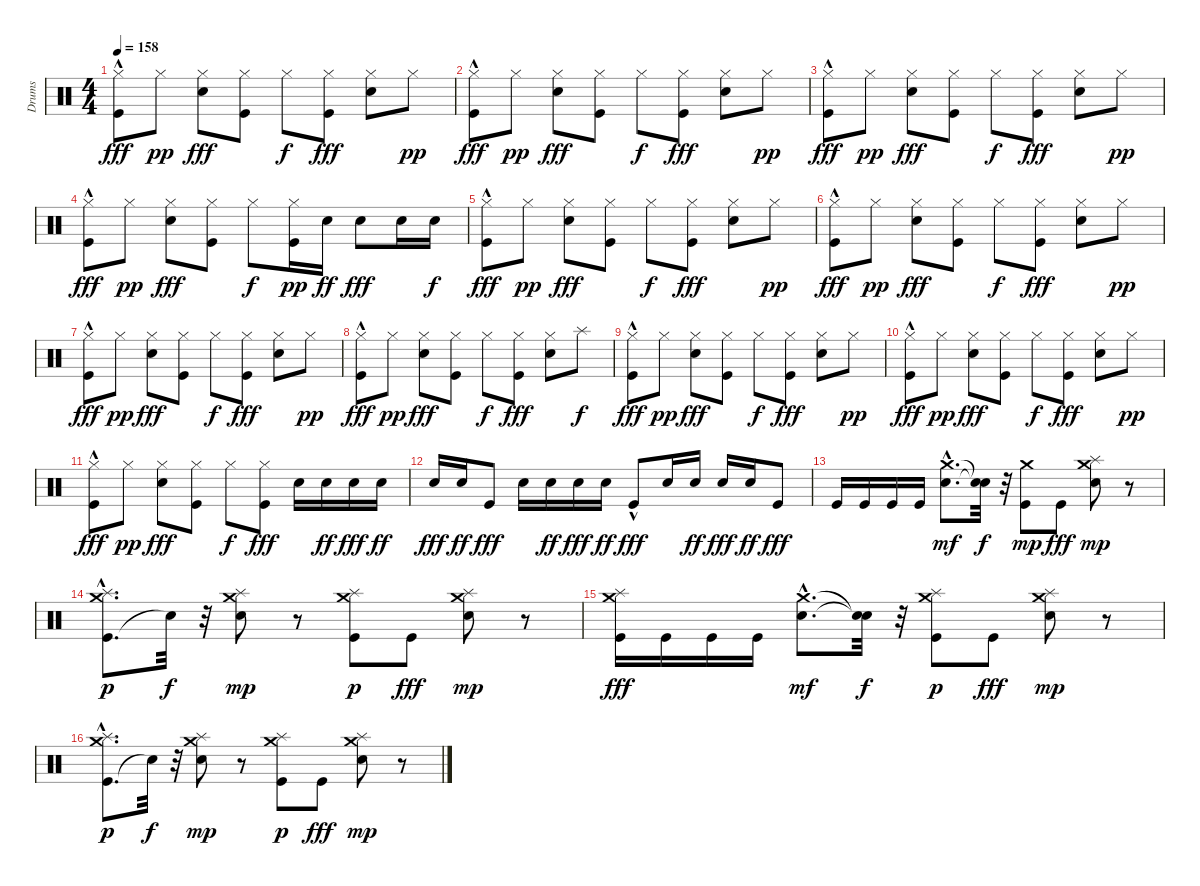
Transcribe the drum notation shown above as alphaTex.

\track ("Drums" "Drums") {instrument percussion}
\staff {score}
\articulation defaults
\ts (4 4)
\tempo 158
\clef neutral
\ks c
("Hi-Hat (closed)" "Kick (hit)"{hac}).8{dy fff} "Hi-Hat (closed)".8{dy pp} ("Electric Snare (hit)" "Hi-Hat (closed)").8{dy fff} ("Hi-Hat (closed)" "Kick (hit)").8 "Hi-Hat (closed)".8{dy f} ("Hi-Hat (closed)" "Kick (hit)").8{dy fff} ("Electric Snare (hit)" "Hi-Hat (closed)").8 "Hi-Hat (closed)".8{dy pp} |
("Hi-Hat (closed)" "Kick (hit)"{hac}).8{dy fff} "Hi-Hat (closed)".8{dy pp} ("Electric Snare (hit)" "Hi-Hat (closed)").8{dy fff} ("Hi-Hat (closed)" "Kick (hit)").8 "Hi-Hat (closed)".8{dy f} ("Hi-Hat (closed)" "Kick (hit)").8{dy fff} ("Electric Snare (hit)" "Hi-Hat (closed)").8 "Hi-Hat (closed)".8{dy pp} |
("Hi-Hat (closed)" "Kick (hit)"{hac}).8{dy fff} "Hi-Hat (closed)".8{dy pp} ("Electric Snare (hit)" "Hi-Hat (closed)").8{dy fff} ("Hi-Hat (closed)" "Kick (hit)").8 "Hi-Hat (closed)".8{dy f} ("Hi-Hat (closed)" "Kick (hit)").8{dy fff} ("Electric Snare (hit)" "Hi-Hat (closed)").8 "Hi-Hat (closed)".8{dy pp} |
("Hi-Hat (closed)" "Kick (hit)"{hac}).8{dy fff} "Hi-Hat (closed)".8{dy pp} ("Electric Snare (hit)" "Hi-Hat (closed)").8{dy fff} ("Hi-Hat (closed)" "Kick (hit)").8 "Hi-Hat (closed)".8{dy f} ("Kick (hit)" "Hi-Hat (closed)").16{dy pp} "Electric Snare (hit)".16{dy ff} "Electric Snare (hit)".8{dy fff} "Electric Snare (hit)".16 "Electric Snare (hit)".16{dy f} |
("Hi-Hat (closed)" "Kick (hit)"{hac}).8{dy fff} "Hi-Hat (closed)".8{dy pp} ("Electric Snare (hit)" "Hi-Hat (closed)").8{dy fff} ("Hi-Hat (closed)" "Kick (hit)").8 "Hi-Hat (closed)".8{dy f} ("Hi-Hat (closed)" "Kick (hit)").8{dy fff} ("Electric Snare (hit)" "Hi-Hat (closed)").8 "Hi-Hat (closed)".8{dy pp} |
("Hi-Hat (closed)" "Kick (hit)"{hac}).8{dy fff} "Hi-Hat (closed)".8{dy pp} ("Electric Snare (hit)" "Hi-Hat (closed)").8{dy fff} ("Hi-Hat (closed)" "Kick (hit)").8 "Hi-Hat (closed)".8{dy f} ("Hi-Hat (closed)" "Kick (hit)").8{dy fff} ("Electric Snare (hit)" "Hi-Hat (closed)").8 "Hi-Hat (closed)".8{dy pp} |
("Hi-Hat (closed)" "Kick (hit)"{hac}).8{dy fff} "Hi-Hat (closed)".8{dy pp} ("Electric Snare (hit)" "Hi-Hat (closed)").8{dy fff} ("Hi-Hat (closed)" "Kick (hit)").8 "Hi-Hat (closed)".8{dy f} ("Hi-Hat (closed)" "Kick (hit)").8{dy fff} ("Electric Snare (hit)" "Hi-Hat (closed)").8 "Hi-Hat (closed)".8{dy pp} |
("Hi-Hat (closed)" "Kick (hit)"{hac}).8{dy fff} "Hi-Hat (closed)".8{dy pp} ("Electric Snare (hit)" "Hi-Hat (closed)").8{dy fff} ("Hi-Hat (closed)" "Kick (hit)").8 "Hi-Hat (closed)".8{dy f} ("Hi-Hat (closed)" "Kick (hit)").8{dy fff} ("Electric Snare (hit)" "Hi-Hat (closed)").8 "Splash (hit)".8{dy f} |
("Hi-Hat (closed)" "Kick (hit)"{hac}).8{dy fff} "Hi-Hat (closed)".8{dy pp} ("Electric Snare (hit)" "Hi-Hat (closed)").8{dy fff} ("Hi-Hat (closed)" "Kick (hit)").8 "Hi-Hat (closed)".8{dy f} ("Hi-Hat (closed)" "Kick (hit)").8{dy fff} ("Electric Snare (hit)" "Hi-Hat (closed)").8 "Hi-Hat (closed)".8{dy pp} |
("Hi-Hat (closed)" "Kick (hit)"{hac}).8{dy fff} "Hi-Hat (closed)".8{dy pp} ("Electric Snare (hit)" "Hi-Hat (closed)").8{dy fff} ("Hi-Hat (closed)" "Kick (hit)").8 "Hi-Hat (closed)".8{dy f} ("Hi-Hat (closed)" "Kick (hit)").8{dy fff} ("Electric Snare (hit)" "Hi-Hat (closed)").8 "Hi-Hat (closed)".8{dy pp} |
("Hi-Hat (closed)" "Kick (hit)"{hac}).8{dy fff} "Hi-Hat (closed)".8{dy pp} ("Electric Snare (hit)" "Hi-Hat (closed)").8{dy fff} ("Hi-Hat (closed)" "Kick (hit)").8 "Hi-Hat (closed)".8{dy f} ("Hi-Hat (closed)" "Kick (hit)").8{dy fff} "Electric Snare (hit)".16 "Electric Snare (hit)".16{dy ff} "Electric Snare (hit)".16{dy fff} "Electric Snare (hit)".16{dy ff} |
"Electric Snare (hit)".16{dy fff} "Electric Snare (hit)".16{dy ff} "Kick (hit)".8{dy fff} "Electric Snare (hit)".16 "Electric Snare (hit)".16{dy ff} "Electric Snare (hit)".16{dy fff} "Electric Snare (hit)".16{dy ff} "Kick (hit)"{hac}.8{dy fff} "Electric Snare (hit)".16 "Electric Snare (hit)".16{dy ff} "Electric Snare (hit)".16{dy fff} "Electric Snare (hit)".16{dy ff} "Kick (hit)".8{dy fff} |
"Kick (hit)".16 "Kick (hit)".16 "Kick (hit)".16 "Kick (hit)".16 ("Electric Snare (hit)"{hac} "Crash medium (hit)"{hac}).8{d dy mf} ("Snare (hit)"{t} "Snare (hit)"{t}).32{dy f} r.32 ("Kick (hit)" "Crash medium (hit)").8{dy mp} "Kick (hit)".8{dy fff} ("Electric Snare (hit)" "Crash medium (hit)" "Splash (hit)").8{dy mp} r.8 |
("Kick (hit)"{hac} "Splash (hit)" "Crash medium (hit)").8{d dy p} "Snare (hit)"{t}.32{dy f} r.32 ("Electric Snare (hit)" "Crash medium (hit)" "Splash (hit)").8{dy mp} r.8 ("Kick (hit)" "Splash (hit)" "Crash medium (hit)").8{dy p} "Kick (hit)".8{dy fff} ("Electric Snare (hit)" "Crash medium (hit)" "Splash (hit)").8{dy mp} r.8 |
("Splash (hit)" "Crash medium (hit)" "Kick (hit)").16{dy fff} "Kick (hit)".16 "Kick (hit)".16 "Kick (hit)".16 ("Electric Snare (hit)"{hac} "Crash medium (hit)"{hac}).8{d dy mf} ("Snare (hit)"{t} "Snare (hit)"{t}).32{dy f} r.32 ("Kick (hit)" "Splash (hit)" "Crash medium (hit)").8{dy p} "Kick (hit)".8{dy fff} ("Electric Snare (hit)" "Crash medium (hit)" "Splash (hit)").8{dy mp} r.8 |
("Kick (hit)"{hac} "Splash (hit)" "Crash medium (hit)").8{d dy p} "Snare (hit)"{t}.32{dy f} r.32 ("Electric Snare (hit)" "Crash medium (hit)" "Splash (hit)").8{dy mp} r.8 ("Kick (hit)" "Splash (hit)" "Crash medium (hit)").8{dy p} "Kick (hit)".8{dy fff} ("Electric Snare (hit)" "Crash medium (hit)" "Splash (hit)").8{dy mp} r.8
